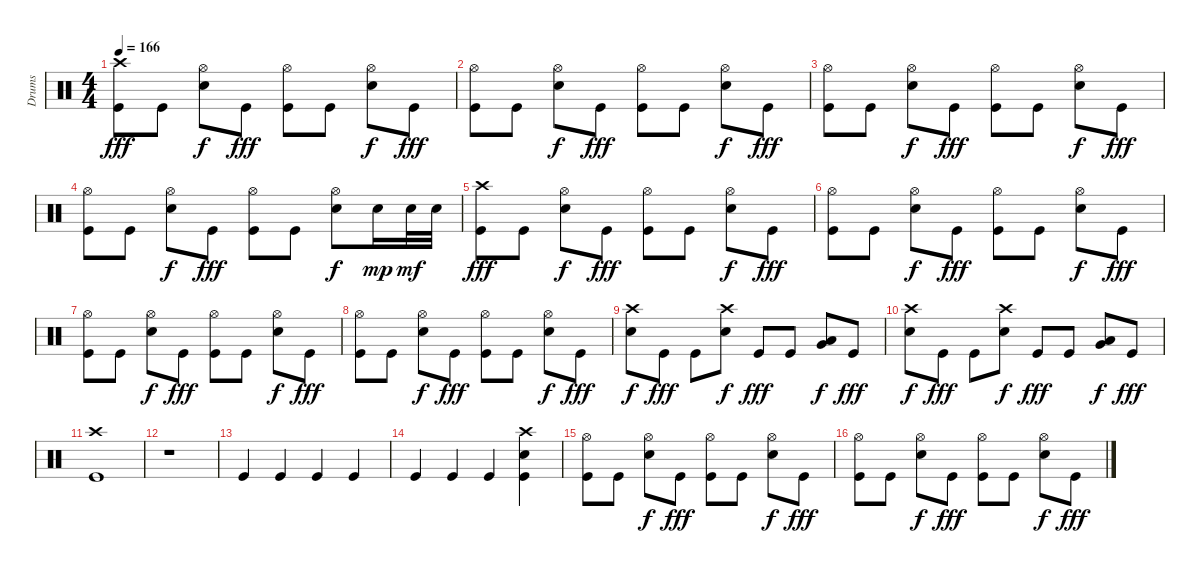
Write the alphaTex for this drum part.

\track ("Drums" "Drums") {instrument percussion}
\staff {score}
\articulation defaults
\ts (4 4)
\tempo 166
\clef neutral
\ks c
("Crash high (hit)" "Kick (hit)").8{dy fff} "Kick (hit)".8 ("Hi-Hat (open)" "Snare (hit) 2").8{dy f} "Kick (hit)".8{dy fff} ("Hi-Hat (open)" "Kick (hit)").8 "Kick (hit)".8 ("Hi-Hat (open)" "Snare (hit) 2").8{dy f} "Kick (hit)".8{dy fff} |
("Hi-Hat (open)" "Kick (hit)").8 "Kick (hit)".8 ("Hi-Hat (open)" "Snare (hit) 2").8{dy f} "Kick (hit)".8{dy fff} ("Hi-Hat (open)" "Kick (hit)").8 "Kick (hit)".8 ("Hi-Hat (open)" "Snare (hit) 2").8{dy f} "Kick (hit)".8{dy fff} |
("Hi-Hat (open)" "Kick (hit)").8 "Kick (hit)".8 ("Hi-Hat (open)" "Snare (hit) 2").8{dy f} "Kick (hit)".8{dy fff} ("Hi-Hat (open)" "Kick (hit)").8 "Kick (hit)".8 ("Hi-Hat (open)" "Snare (hit) 2").8{dy f} "Kick (hit)".8{dy fff} |
("Hi-Hat (open)" "Kick (hit)").8 "Kick (hit)".8 ("Hi-Hat (open)" "Snare (hit) 2").8{dy f} "Kick (hit)".8{dy fff} ("Hi-Hat (open)" "Kick (hit)").8 "Kick (hit)".8 ("Hi-Hat (open)" "Snare (hit) 2").8{dy f} "Snare (hit) 2".16{dy mp} "Snare (hit) 2".32{dy mf} "Snare (hit) 2".32 |
("Crash high (hit)" "Kick (hit)").8{dy fff} "Kick (hit)".8 ("Hi-Hat (open)" "Snare (hit) 2").8{dy f} "Kick (hit)".8{dy fff} ("Hi-Hat (open)" "Kick (hit)").8 "Kick (hit)".8 ("Hi-Hat (open)" "Snare (hit) 2").8{dy f} "Kick (hit)".8{dy fff} |
("Hi-Hat (open)" "Kick (hit)").8 "Kick (hit)".8 ("Hi-Hat (open)" "Snare (hit) 2").8{dy f} "Kick (hit)".8{dy fff} ("Hi-Hat (open)" "Kick (hit)").8 "Kick (hit)".8 ("Hi-Hat (open)" "Snare (hit) 2").8{dy f} "Kick (hit)".8{dy fff} |
("Hi-Hat (open)" "Kick (hit)").8 "Kick (hit)".8 ("Hi-Hat (open)" "Snare (hit) 2").8{dy f} "Kick (hit)".8{dy fff} ("Hi-Hat (open)" "Kick (hit)").8 "Kick (hit)".8 ("Hi-Hat (open)" "Snare (hit) 2").8{dy f} "Kick (hit)".8{dy fff} |
("Hi-Hat (open)" "Kick (hit)").8 "Kick (hit)".8 ("Hi-Hat (open)" "Snare (hit) 2").8{dy f} "Kick (hit)".8{dy fff} ("Hi-Hat (open)" "Kick (hit)").8 "Kick (hit)".8 ("Hi-Hat (open)" "Snare (hit) 2").8{dy f} "Kick (hit)".8{dy fff} |
("Crash high (hit)" "Snare (hit) 2").8{dy f} "Kick (hit)".8{dy fff} "Kick (hit)".8 ("Crash high (hit)" "Snare (hit) 2").8{dy f} "Kick (hit)".8{dy fff} "Kick (hit)".8 ("Very Low Tom (hit)" "Low Floor Tom (hit)").8{dy f} "Kick (hit)".8{dy fff} |
("Crash high (hit)" "Snare (hit) 2").8{dy f} "Kick (hit)".8{dy fff} "Kick (hit)".8 ("Crash high (hit)" "Snare (hit) 2").8{dy f} "Kick (hit)".8{dy fff} "Kick (hit)".8 ("Very Low Tom (hit)" "Low Floor Tom (hit)").8{dy f} "Kick (hit)".8{dy fff} |
("Crash high (hit)" "Kick (hit)").1 |
r.1 |
"Kick (hit)".4 "Kick (hit)".4 "Kick (hit)".4 "Kick (hit)".4 |
"Kick (hit)".4 "Kick (hit)".4 "Kick (hit)".4 ("Crash high (hit)" "Snare (hit) 2" "Kick (hit)").4 |
("Hi-Hat (open)" "Kick (hit)").8 "Kick (hit)".8 ("Hi-Hat (open)" "Snare (hit) 2").8{dy f} "Kick (hit)".8{dy fff} ("Hi-Hat (open)" "Kick (hit)").8 "Kick (hit)".8 ("Hi-Hat (open)" "Snare (hit) 2").8{dy f} "Kick (hit)".8{dy fff} |
("Hi-Hat (open)" "Kick (hit)").8 "Kick (hit)".8 ("Hi-Hat (open)" "Snare (hit) 2").8{dy f} "Kick (hit)".8{dy fff} ("Hi-Hat (open)" "Kick (hit)").8 "Kick (hit)".8 ("Hi-Hat (open)" "Snare (hit) 2").8{dy f} "Kick (hit)".8{dy fff}
